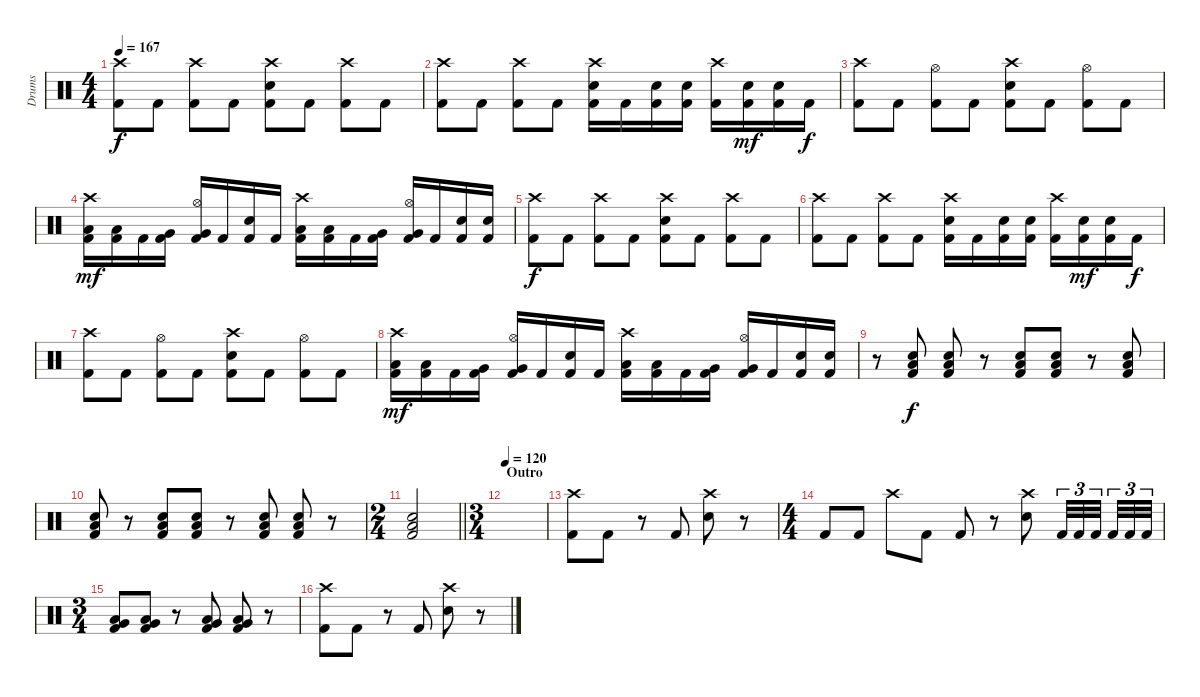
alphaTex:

\track ("Drums" "Drums") {instrument percussion}
\staff {score}
\articulation defaults
\ts (4 4)
\tempo 167
\clef neutral
\ks c
("Crash high (hit)" "Kick (hit) 2").8{dy f} "Kick (hit) 2".8 ("Crash high (hit)" "Kick (hit) 2").8 "Kick (hit) 2".8 ("Crash high (hit)" "Electric Snare (hit)" "Kick (hit) 2").8 "Kick (hit) 2".8 ("Crash high (hit)" "Kick (hit) 2").8 "Kick (hit) 2".8 |
("Crash high (hit)" "Kick (hit) 2").8 "Kick (hit) 2".8 ("Crash high (hit)" "Kick (hit) 2").8 "Kick (hit) 2".8 ("Crash high (hit)" "Electric Snare (hit)" "Kick (hit) 2").16 "Kick (hit) 2".16 ("Electric Snare (hit)" "Kick (hit) 2").16 ("Electric Snare (hit)" "Kick (hit) 2").16 ("Crash high (hit)" "Kick (hit) 2").16 ("Electric Snare (hit)" "Kick (hit) 2").16{dy mf} ("Electric Snare (hit)" "Kick (hit) 2").16 "Kick (hit) 2".16{dy f} |
("Crash high (hit)" "Kick (hit) 2").8 "Kick (hit) 2".8 ("Hi-Hat (open)" "Kick (hit) 2").8 "Kick (hit) 2".8 ("Crash high (hit)" "Electric Snare (hit)" "Kick (hit) 2").8 "Kick (hit) 2".8 ("Hi-Hat (open)" "Kick (hit) 2").8 "Kick (hit) 2".8 |
("Crash high (hit)" "Low Tom (hit)" "Kick (hit) 2").16{dy mf} ("Low Tom (hit)" "Kick (hit) 2").16 "Kick (hit) 2".16 ("Very Low Tom (hit)" "Kick (hit) 2").16 ("Hi-Hat (open)" "Very Low Tom (hit)" "Kick (hit) 2").16 "Kick (hit) 2".16 ("Electric Snare (hit)" "Kick (hit) 2").16 "Kick (hit) 2".16 ("Crash high (hit)" "Low Tom (hit)" "Kick (hit) 2").16 ("Low Tom (hit)" "Kick (hit) 2").16 "Kick (hit) 2".16 ("Very Low Tom (hit)" "Kick (hit) 2").16 ("Hi-Hat (open)" "Very Low Tom (hit)" "Kick (hit) 2").16 "Kick (hit) 2".16 ("Electric Snare (hit)" "Kick (hit) 2").16 ("Electric Snare (hit)" "Kick (hit) 2").16 |
("Crash high (hit)" "Kick (hit) 2").8{dy f} "Kick (hit) 2".8 ("Crash high (hit)" "Kick (hit) 2").8 "Kick (hit) 2".8 ("Crash high (hit)" "Electric Snare (hit)" "Kick (hit) 2").8 "Kick (hit) 2".8 ("Crash high (hit)" "Kick (hit) 2").8 "Kick (hit) 2".8 |
("Crash high (hit)" "Kick (hit) 2").8 "Kick (hit) 2".8 ("Crash high (hit)" "Kick (hit) 2").8 "Kick (hit) 2".8 ("Crash high (hit)" "Electric Snare (hit)" "Kick (hit) 2").16 "Kick (hit) 2".16 ("Electric Snare (hit)" "Kick (hit) 2").16 ("Electric Snare (hit)" "Kick (hit) 2").16 ("Crash high (hit)" "Kick (hit) 2").16 ("Electric Snare (hit)" "Kick (hit) 2").16{dy mf} ("Electric Snare (hit)" "Kick (hit) 2").16 "Kick (hit) 2".16{dy f} |
("Crash high (hit)" "Kick (hit) 2").8 "Kick (hit) 2".8 ("Hi-Hat (open)" "Kick (hit) 2").8 "Kick (hit) 2".8 ("Crash high (hit)" "Electric Snare (hit)" "Kick (hit) 2").8 "Kick (hit) 2".8 ("Hi-Hat (open)" "Kick (hit) 2").8 "Kick (hit) 2".8 |
("Crash high (hit)" "Low Tom (hit)" "Kick (hit) 2").16{dy mf} ("Low Tom (hit)" "Kick (hit) 2").16 "Kick (hit) 2".16 ("Very Low Tom (hit)" "Kick (hit) 2").16 ("Hi-Hat (open)" "Very Low Tom (hit)" "Kick (hit) 2").16 "Kick (hit) 2".16 ("Electric Snare (hit)" "Kick (hit) 2").16 "Kick (hit) 2".16 ("Crash high (hit)" "Low Tom (hit)" "Kick (hit) 2").16 ("Low Tom (hit)" "Kick (hit) 2").16 "Kick (hit) 2".16 ("Very Low Tom (hit)" "Kick (hit) 2").16 ("Hi-Hat (open)" "Very Low Tom (hit)" "Kick (hit) 2").16 "Kick (hit) 2".16 ("Electric Snare (hit)" "Kick (hit) 2").16 ("Electric Snare (hit)" "Kick (hit) 2").16 |
r.8 ("Low Floor Tom (hit)" "Electric Snare (hit)" "Kick (hit) 2").8{dy f} ("Low Floor Tom (hit)" "Electric Snare (hit)" "Kick (hit) 2").8 r.8 ("Low Floor Tom (hit)" "Electric Snare (hit)" "Kick (hit) 2").8 ("Low Floor Tom (hit)" "Electric Snare (hit)" "Kick (hit) 2").8 r.8 ("Low Floor Tom (hit)" "Electric Snare (hit)" "Kick (hit) 2").8 |
("Low Floor Tom (hit)" "Electric Snare (hit)" "Kick (hit) 2").8 r.8 ("Low Floor Tom (hit)" "Electric Snare (hit)" "Kick (hit) 2").8 ("Low Floor Tom (hit)" "Electric Snare (hit)" "Kick (hit) 2").8 r.8 ("Low Floor Tom (hit)" "Electric Snare (hit)" "Kick (hit) 2").8 ("Low Floor Tom (hit)" "Electric Snare (hit)" "Kick (hit) 2").8 r.8 |
\ts (2 4)
\barLineRight lightlight
("Low Floor Tom (hit)" "Electric Snare (hit)" "Kick (hit) 2").2 |
\ts (3 4)
\section ("" "Outro")
\tempo 120
|
("Crash high (hit)" "Kick (hit) 2").8 "Kick (hit) 2".8 r.8 "Kick (hit) 2".8 ("Crash high (hit)" "Electric Snare (hit)").8 r.8 |
\ts (4 4)
"Kick (hit) 2".8 "Kick (hit) 2".8 "Crash high (hit)".8 "Kick (hit) 2".8 "Kick (hit) 2".8 r.8 ("Crash high (hit)" "Electric Snare (hit)").8 "Kick (hit) 2".32{tu (3 2)} "Kick (hit) 2".32{tu (3 2)} "Kick (hit) 2".32{tu (3 2) beam splitsecondary} "Kick (hit) 2".32{tu (3 2)} "Kick (hit) 2".32{tu (3 2)} "Kick (hit) 2".32{tu (3 2)} |
\ts (3 4)
("Very Low Tom (hit)" "Low Floor Tom (hit)" "Kick (hit) 2").8 ("Very Low Tom (hit)" "Low Floor Tom (hit)" "Kick (hit) 2").8 r.8 ("Very Low Tom (hit)" "Low Floor Tom (hit)" "Kick (hit) 2").8 ("Very Low Tom (hit)" "Low Floor Tom (hit)" "Kick (hit) 2").8 r.8 |
("Crash high (hit)" "Kick (hit) 2").8 "Kick (hit) 2".8 r.8 "Kick (hit) 2".8 ("Crash high (hit)" "Electric Snare (hit)").8 r.8
